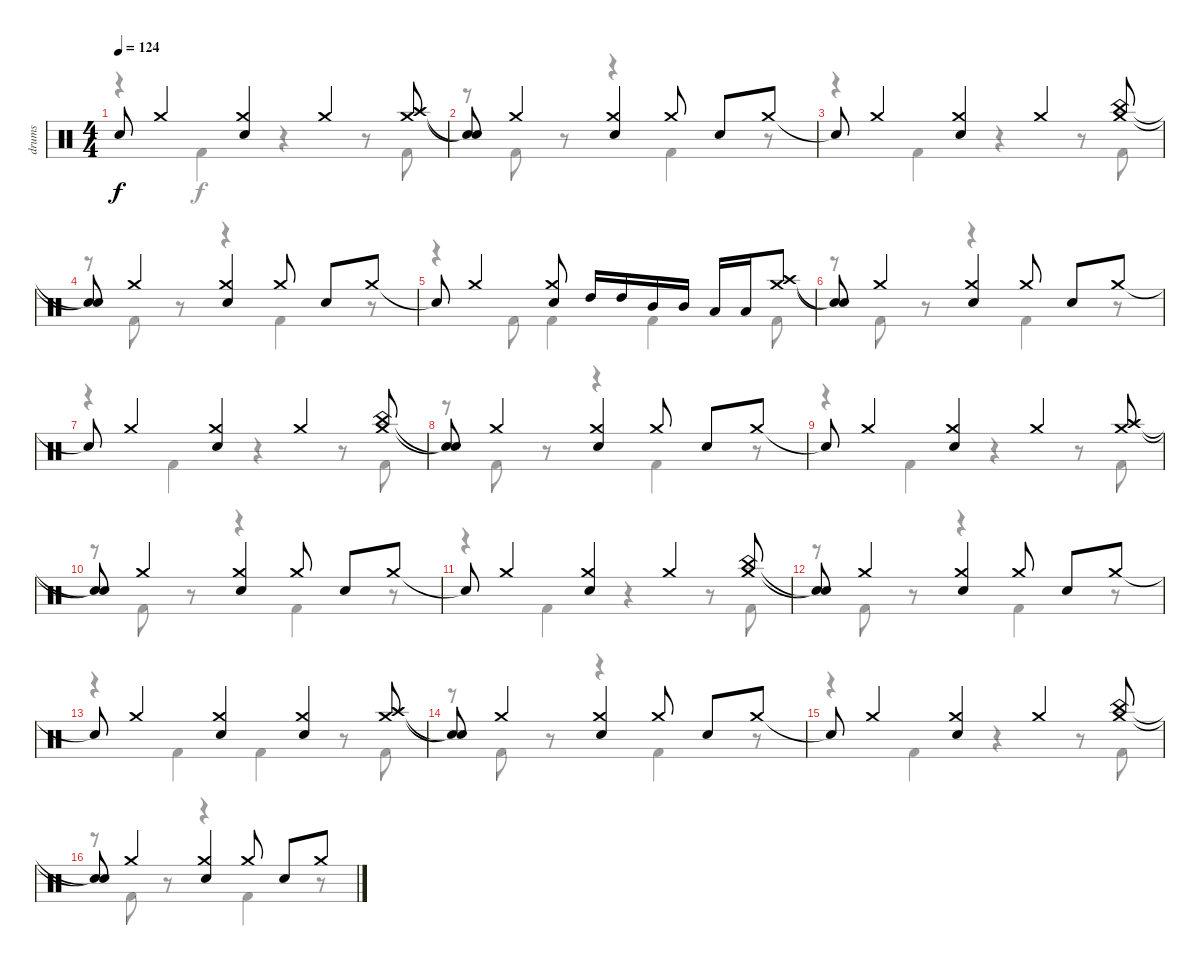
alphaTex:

\track ("drums" "drums") {instrument percussion}
\staff {score}
\articulation defaults
\voice
\ts (4 4)
\tempo 124
\clef neutral
\ks c "Snare (hit)"{t}.8{dy f} "Crash medium (hit)".4
("Crash medium (hit)" "Snare (hit) 2").4 "Crash medium (hit)".4 ("Crash medium (hit)" "Crash high (hit)").8 |
("Snare (hit)"{t} "Snare (hit)"{t}).8 "Crash medium (hit)".4 ("Crash medium (hit)" "Snare (hit) 2").4 "Crash medium (hit)".8 "Snare (hit) 2".8 "Crash medium (hit)".8 |
"Snare (hit)"{t}.8 "Crash medium (hit)".4 ("Crash medium (hit)" "Snare (hit) 2").4 "Crash medium (hit)".4 ("Crash medium (hit)" "China (hit)").8 |
("Snare (hit)"{t} "Snare (hit)"{t}).8 "Crash medium (hit)".4 ("Crash medium (hit)" "Snare (hit) 2").4 "Crash medium (hit)".8 "Snare (hit) 2".8 "Crash medium (hit)".8 |
"Snare (hit)"{t}.8 "Crash medium (hit)".4 ("Crash medium (hit)" "Snare (hit) 2").8 "High Tom (hit)".16 "High Tom (hit)".16 "Mid Tom (hit)".16 "Mid Tom (hit)".16 "Low Tom (hit)".16 "Low Tom (hit)".16 ("Crash medium (hit)" "Crash high (hit)").8 |
("Snare (hit)"{t} "Snare (hit)"{t}).8 "Crash medium (hit)".4 ("Crash medium (hit)" "Snare (hit) 2").4 "Crash medium (hit)".8 "Snare (hit) 2".8 "Crash medium (hit)".8 |
"Snare (hit)"{t}.8 "Crash medium (hit)".4 ("Crash medium (hit)" "Snare (hit) 2").4 "Crash medium (hit)".4 ("Crash medium (hit)" "China (hit)").8 |
("Snare (hit)"{t} "Snare (hit)"{t}).8 "Crash medium (hit)".4 ("Crash medium (hit)" "Snare (hit) 2").4 "Crash medium (hit)".8 "Snare (hit) 2".8 "Crash medium (hit)".8 |
"Snare (hit)"{t}.8 "Crash medium (hit)".4 ("Crash medium (hit)" "Snare (hit) 2").4 "Crash medium (hit)".4 ("Crash medium (hit)" "Crash high (hit)").8 |
("Snare (hit)"{t} "Snare (hit)"{t}).8 "Crash medium (hit)".4 ("Crash medium (hit)" "Snare (hit) 2").4 "Crash medium (hit)".8 "Snare (hit) 2".8 "Crash medium (hit)".8 |
"Snare (hit)"{t}.8 "Crash medium (hit)".4 ("Crash medium (hit)" "Snare (hit) 2").4 "Crash medium (hit)".4 ("Crash medium (hit)" "China (hit)").8 |
("Snare (hit)"{t} "Snare (hit)"{t}).8 "Crash medium (hit)".4 ("Crash medium (hit)" "Snare (hit) 2").4 "Crash medium (hit)".8 "Snare (hit) 2".8 "Crash medium (hit)".8 |
"Snare (hit)"{t}.8 "Crash medium (hit)".4 ("Crash medium (hit)" "Snare (hit) 2").4 ("Crash medium (hit)" "Snare (hit) 2").4 ("Crash medium (hit)" "Crash high (hit)").8 |
("Snare (hit)"{t} "Snare (hit)"{t}).8 "Crash medium (hit)".4 ("Crash medium (hit)" "Snare (hit) 2").4 "Crash medium (hit)".8 "Snare (hit) 2".8 "Crash medium (hit)".8 |
"Snare (hit)"{t}.8 "Crash medium (hit)".4 ("Crash medium (hit)" "Snare (hit) 2").4 "Crash medium (hit)".4 ("Crash medium (hit)" "China (hit)").8 |
("Snare (hit)"{t} "Snare (hit)"{t}).8 "Crash medium (hit)".4 ("Crash medium (hit)" "Snare (hit) 2").4 "Crash medium (hit)".8 "Snare (hit) 2".8 "Crash medium (hit)".8
\voice
\clef neutral
\ottava regular
\simile none
\ks c
r.4{dy f} "Kick (hit) 2".4 r.4 r.8 "Kick (hit) 2".8 |
r.8 "Kick (hit) 2".8 r.8 r.4 "Kick (hit) 2".4 r.8 |
r.4 "Kick (hit) 2".4 r.4 r.8 "Kick (hit) 2".8 |
r.8 "Kick (hit) 2".8 r.8 r.4 "Kick (hit) 2".4 r.8 |
r.4 "Kick (hit) 2".8 "Kick (hit) 2".4 "Kick (hit) 2".4 "Kick (hit) 2".8 |
r.8 "Kick (hit) 2".8 r.8 r.4 "Kick (hit) 2".4 r.8 |
r.4 "Kick (hit) 2".4 r.4 r.8 "Kick (hit) 2".8 |
r.8 "Kick (hit) 2".8 r.8 r.4 "Kick (hit) 2".4 r.8 |
r.4 "Kick (hit) 2".4 r.4 r.8 "Kick (hit) 2".8 |
r.8 "Kick (hit) 2".8 r.8 r.4 "Kick (hit) 2".4 r.8 |
r.4 "Kick (hit) 2".4 r.4 r.8 "Kick (hit) 2".8 |
r.8 "Kick (hit) 2".8 r.8 r.4 "Kick (hit) 2".4 r.8 |
r.4 "Kick (hit) 2".4 "Kick (hit) 2".4 r.8 "Kick (hit) 2".8 |
r.8 "Kick (hit) 2".8 r.8 r.4 "Kick (hit) 2".4 r.8 |
r.4 "Kick (hit) 2".4 r.4 r.8 "Kick (hit) 2".8 |
r.8 "Kick (hit) 2".8 r.8 r.4 "Kick (hit) 2".4 r.8
